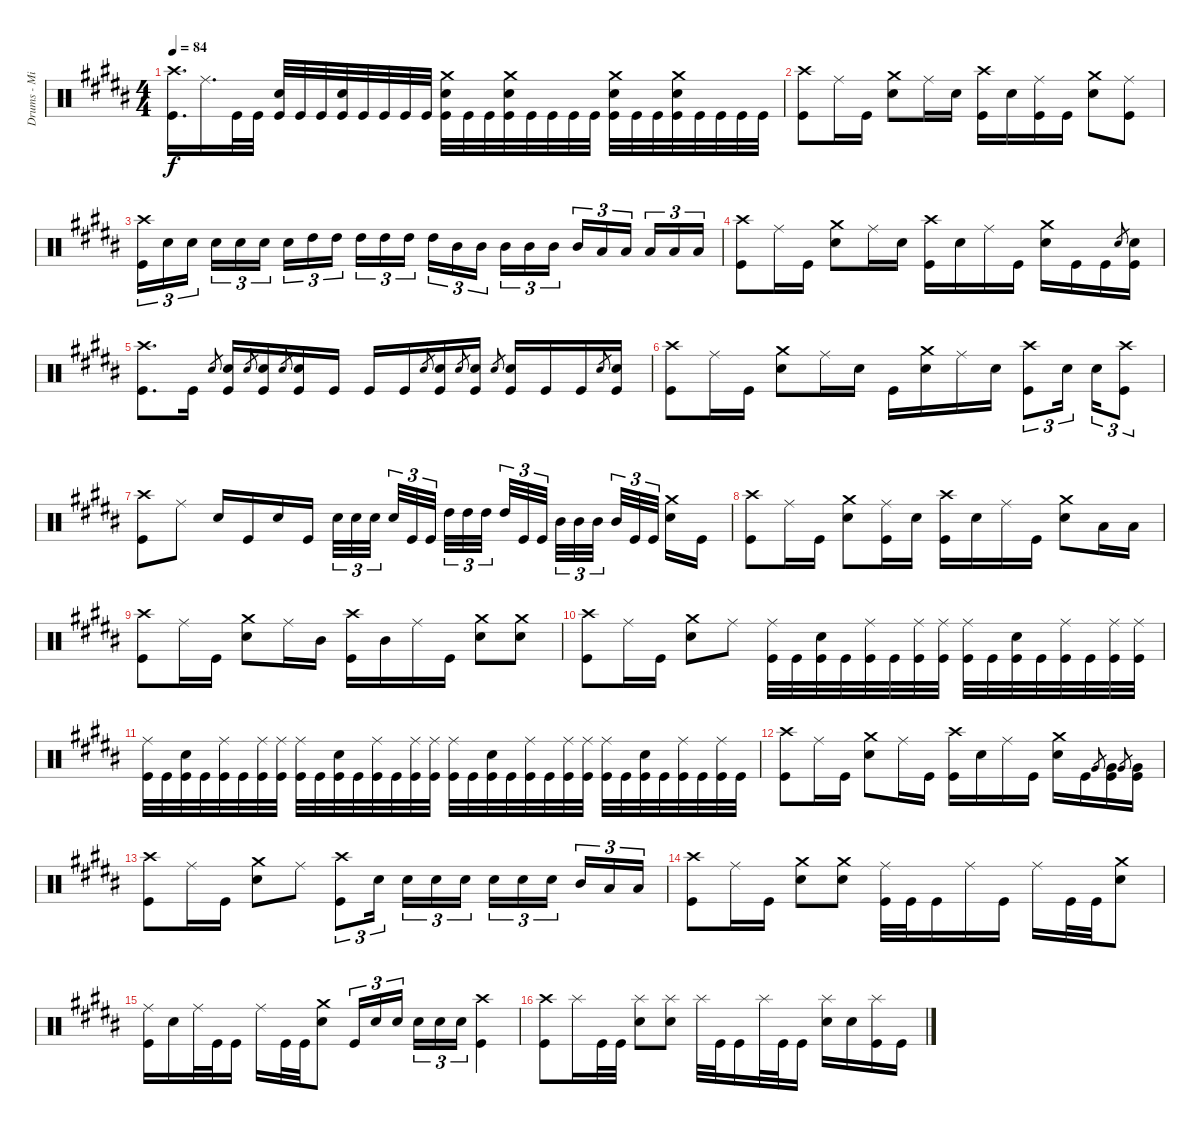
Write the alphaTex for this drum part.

\track ("Drums - Mike Portnoy" "Drums - Mi") {instrument percussion}
\staff {score}
\articulation defaults
\ts (4 4)
\tempo 84
\clef neutral
\ks b
("Crash high (hit)" "Kick (hit)").16{d dy f} "Ride (middle)".16{d} "Kick (hit)".32 "Kick (hit)".32 ("Snare (hit) 2" "Kick (hit)").32 "Kick (hit)".32 "Kick (hit)".32 ("Snare (hit) 2" "Kick (hit)").32 "Kick (hit)".32 "Kick (hit)".32 "Kick (hit)".32 "Kick (hit)".32 ("Crash medium (hit)" "Snare (hit) 2" "Kick (hit)").32 "Kick (hit)".32 "Kick (hit)".32 ("Crash medium (hit)" "Snare (hit) 2" "Kick (hit)").32 "Kick (hit)".32 "Kick (hit)".32 "Kick (hit)".32 "Kick (hit)".32 ("Crash medium (hit)" "Snare (hit) 2" "Kick (hit)").32 "Kick (hit)".32 "Kick (hit)".32 ("Crash medium (hit)" "Snare (hit) 2" "Kick (hit)").32 "Kick (hit)".32 "Kick (hit)".32 "Kick (hit)".32 "Kick (hit)".32 |
("Crash high (hit)" "Kick (hit)").8 "Ride (middle)".16 "Kick (hit)".16 ("Crash medium (hit)" "Snare (hit) 2").8 "Ride (middle)".16 "Snare (hit) 2".16 ("Crash high (hit)" "Kick (hit)").16 "Snare (hit) 2".16 ("Ride (middle)" "Kick (hit)").16 "Kick (hit)".16 ("Crash medium (hit)" "Snare (hit) 2").8 ("Ride (middle)" "Kick (hit)").8 |
("Crash high (hit)" "Kick (hit)").16{tu (3 2)} "Snare (hit) 2".16{tu (3 2)} "Snare (hit) 2".16{tu (3 2) beam splitsecondary} "Snare (hit) 2".16{tu (3 2)} "Snare (hit) 2".16{tu (3 2)} "Snare (hit) 2".16{tu (3 2)} "Snare (hit) 2".16{tu (3 2)} "High Tom (hit)".16{tu (3 2)} "High Tom (hit)".16{tu (3 2) beam splitsecondary} "High Tom (hit)".16{tu (3 2)} "High Tom (hit)".16{tu (3 2)} "High Tom (hit)".16{tu (3 2)} "High Tom (hit)".16{tu (3 2)} "Mid Tom (hit)".16{tu (3 2)} "Mid Tom (hit)".16{tu (3 2) beam splitsecondary} "Mid Tom (hit)".16{tu (3 2)} "Mid Tom (hit)".16{tu (3 2)} "Mid Tom (hit)".16{tu (3 2)} "Mid Tom (hit)".16{tu (3 2)} "Low Tom (hit)".16{tu (3 2)} "Low Tom (hit)".16{tu (3 2) beam splitsecondary} "Low Tom (hit)".16{tu (3 2)} "Low Tom (hit)".16{tu (3 2)} "Low Tom (hit)".16{tu (3 2)} |
("Crash high (hit)" "Kick (hit)").8 "Ride (middle)".16 "Kick (hit)".16 ("Crash medium (hit)" "Snare (hit) 2").8 "Ride (middle)".16 "Snare (hit) 2".16 ("Crash high (hit)" "Kick (hit)").16 "Snare (hit) 2".16 "Ride (middle)".16 "Kick (hit)".16 ("Crash medium (hit)" "Snare (hit) 2").16 "Kick (hit)".16 "Kick (hit)".16 "Snare (hit) 2".8{gr} ("Snare (hit) 2" "Kick (hit)").16 |
("Crash high (hit)" "Kick (hit)").8{d} "Kick (hit)".16 "Snare (hit) 2".8{gr} ("Snare (hit) 2" "Kick (hit)").16 "Snare (hit) 2".8{gr} ("Snare (hit) 2" "Kick (hit)").16 "Snare (hit) 2".8{gr} ("Snare (hit) 2" "Kick (hit)").16 "Kick (hit)".16 "Kick (hit)".16 "Kick (hit)".16 "Snare (hit) 2".8{gr} ("Snare (hit) 2" "Kick (hit)").16 "Snare (hit) 2".8{gr} ("Snare (hit) 2" "Kick (hit)").16 "Snare (hit) 2".8{gr} ("Snare (hit) 2" "Kick (hit)").16 "Kick (hit)".16 "Kick (hit)".16 "Snare (hit) 2".8{gr} ("Snare (hit) 2" "Kick (hit)").16 |
("Crash high (hit)" "Kick (hit)").8 "Ride (middle)".16 "Kick (hit)".16 ("Crash medium (hit)" "Snare (hit) 2").8 "Ride (middle)".16 "Snare (hit) 2".16 "Kick (hit)".16 ("Crash medium (hit)" "Snare (hit) 2").16 "Ride (middle)".16 "Snare (hit) 2".16 ("Crash high (hit)" "Kick (hit)").8{tu (3 2)} "Snare (hit) 2".16{tu (3 2) beam splitsecondary} "Snare (hit) 2".16{tu (3 2)} ("Crash high (hit)" "Kick (hit)").8{tu (3 2)} |
("Crash high (hit)" "Kick (hit)").8 "Ride (middle)".8 "Snare (hit) 2".16 "Kick (hit)".16 "Snare (hit) 2".16 "Kick (hit)".16 "Snare (hit) 2".32{tu (3 2)} "Snare (hit) 2".32{tu (3 2)} "Snare (hit) 2".32{tu (3 2) beam splitsecondary} "Snare (hit) 2".32{tu (3 2)} "Kick (hit)".32{tu (3 2)} "Kick (hit)".32{tu (3 2) beam splitsecondary} "High Tom (hit)".32{tu (3 2)} "High Tom (hit)".32{tu (3 2)} "High Tom (hit)".32{tu (3 2) beam splitsecondary} "High Tom (hit)".32{tu (3 2)} "Kick (hit)".32{tu (3 2)} "Kick (hit)".32{tu (3 2)} "Mid Tom (hit)".32{tu (3 2)} "Mid Tom (hit)".32{tu (3 2)} "Mid Tom (hit)".32{tu (3 2) beam splitsecondary} "Mid Tom (hit)".32{tu (3 2)} "Kick (hit)".32{tu (3 2)} "Kick (hit)".32{tu (3 2) beam splitsecondary} ("Crash medium (hit)" "Snare (hit) 2").16 "Kick (hit)".16 |
("Crash high (hit)" "Kick (hit)").8 "Ride (middle)".16 "Kick (hit)".16 ("Crash medium (hit)" "Snare (hit) 2").8 ("Ride (middle)" "Kick (hit)").16 "Snare (hit) 2".16 ("Crash high (hit)" "Kick (hit)").16 "Snare (hit) 2".16 "Ride (middle)".16 "Kick (hit)".16 ("Crash medium (hit)" "Snare (hit) 2").8 "Low Tom (hit)".16 "Low Tom (hit)".16 |
("Crash high (hit)" "Kick (hit)").8 "Ride (middle)".16 "Kick (hit)".16 ("Crash medium (hit)" "Snare (hit) 2").8 "Ride (middle)".16 "Mid Tom (hit)".16 ("Crash high (hit)" "Kick (hit)").16 "Mid Tom (hit)".16 "Ride (middle)".16 "Kick (hit)".16 ("Crash medium (hit)" "Snare (hit) 2").8 ("Crash medium (hit)" "Snare (hit) 2").8 |
("Crash high (hit)" "Kick (hit)").8 "Ride (middle)".16 "Kick (hit)".16 ("Crash medium (hit)" "Snare (hit) 2").8 "Ride (middle)".8 ("Ride (middle)" "Kick (hit)").32 "Kick (hit)".32 ("Snare (hit) 2" "Kick (hit)").32 "Kick (hit)".32 ("Ride (middle)" "Kick (hit)").32 "Kick (hit)".32 ("Ride (middle)" "Kick (hit)").32 ("Ride (middle)" "Kick (hit)").32 ("Ride (middle)" "Kick (hit)").32 "Kick (hit)".32 ("Snare (hit) 2" "Kick (hit)").32 "Kick (hit)".32 ("Ride (middle)" "Kick (hit)").32 "Kick (hit)".32 ("Ride (middle)" "Kick (hit)").32 ("Ride (middle)" "Kick (hit)").32 |
("Ride (middle)" "Kick (hit)").32 "Kick (hit)".32 ("Snare (hit) 2" "Kick (hit)").32 "Kick (hit)".32 ("Ride (middle)" "Kick (hit)").32 "Kick (hit)".32 ("Ride (middle)" "Kick (hit)").32 ("Ride (middle)" "Kick (hit)").32 ("Ride (middle)" "Kick (hit)").32 "Kick (hit)".32 ("Snare (hit) 2" "Kick (hit)").32 "Kick (hit)".32 ("Ride (middle)" "Kick (hit)").32 "Kick (hit)".32 ("Ride (middle)" "Kick (hit)").32 ("Ride (middle)" "Kick (hit)").32 ("Ride (middle)" "Kick (hit)").32 "Kick (hit)".32 ("Snare (hit) 2" "Kick (hit)").32 "Kick (hit)".32 ("Ride (middle)" "Kick (hit)").32 "Kick (hit)".32 ("Ride (middle)" "Kick (hit)").32 ("Ride (middle)" "Kick (hit)").32 ("Ride (middle)" "Kick (hit)").32 "Kick (hit)".32 ("Snare (hit) 2" "Kick (hit)").32 "Kick (hit)".32 ("Ride (middle)" "Kick (hit)").32 "Kick (hit)".32 ("Ride (middle)" "Kick (hit)").32 "Kick (hit)".32 |
("Crash high (hit)" "Kick (hit)").8 "Ride (middle)".16 "Kick (hit)".16 ("Crash medium (hit)" "Snare (hit) 2").8 "Ride (middle)".16 "Kick (hit)".16 ("Crash high (hit)" "Kick (hit)").16 "Snare (hit) 2".16 "Ride (middle)".16 "Kick (hit)".16 ("Crash medium (hit)" "Snare (hit) 2").16 "Kick (hit)".16 "Very Low Tom (hit)".8{gr} ("Very Low Tom (hit)" "Kick (hit)").16 "Very Low Tom (hit)".8{gr} ("Very Low Tom (hit)" "Kick (hit)").16 |
("Crash high (hit)" "Kick (hit)").8 "Ride (middle)".16 "Kick (hit)".16 ("Crash medium (hit)" "Snare (hit) 2").8 "Ride (middle)".8 ("Crash high (hit)" "Kick (hit)").8{tu (3 2)} "Snare (hit) 2".16{tu (3 2) beam splitsecondary} "Snare (hit) 2".16{tu (3 2)} "Snare (hit) 2".16{tu (3 2)} "Snare (hit) 2".16{tu (3 2)} "Snare (hit) 2".16{tu (3 2)} "Snare (hit) 2".16{tu (3 2)} "Snare (hit) 2".16{tu (3 2) beam splitsecondary} "Mid Tom (hit)".16{tu (3 2)} "Low Tom (hit)".16{tu (3 2)} "Low Tom (hit)".16{tu (3 2)} |
("Crash high (hit)" "Kick (hit)").8 "Ride (middle)".16 "Kick (hit)".16 ("Crash medium (hit)" "Snare (hit) 2").8 ("Crash medium (hit)" "Snare (hit) 2").8 ("Ride (middle)" "Kick (hit)").32 "Kick (hit)".32 "Kick (hit)".16 "Ride (middle)".16 "Kick (hit)".16 "Ride (middle)".16 "Kick (hit)".32 "Kick (hit)".32 ("Crash medium (hit)" "Snare (hit) 2").8 |
("Ride (middle)" "Kick (hit)").16 "Snare (hit) 2".16 "Ride (middle)".32 "Kick (hit)".32 "Kick (hit)".16 "Ride (middle)".16 "Kick (hit)".32 "Kick (hit)".32 ("Crash medium (hit)" "Snare (hit) 2").8 "Kick (hit)".16{tu (3 2)} "Snare (hit) 2".16{tu (3 2)} "Snare (hit) 2".16{tu (3 2) beam splitsecondary} "Snare (hit) 2".16{tu (3 2)} "Snare (hit) 2".16{tu (3 2)} "Snare (hit) 2".16{tu (3 2)} ("Crash high (hit)" "Kick (hit)").4 |
("Crash high (hit)" "Kick (hit)").8 "Splash (hit)".16 "Kick (hit)".32 "Kick (hit)".32 ("Splash (hit)" "Snare (hit) 2").8 ("Splash (hit)" "Snare (hit) 2").8 "Splash (hit)".32 "Kick (hit)".32 "Kick (hit)".16 "Splash (hit)".32 "Kick (hit)".32 "Kick (hit)".16 ("Splash (hit)" "Snare (hit) 2").16 "Snare (hit) 2".16 ("Splash (hit)" "Kick (hit)").16 "Kick (hit)".16
